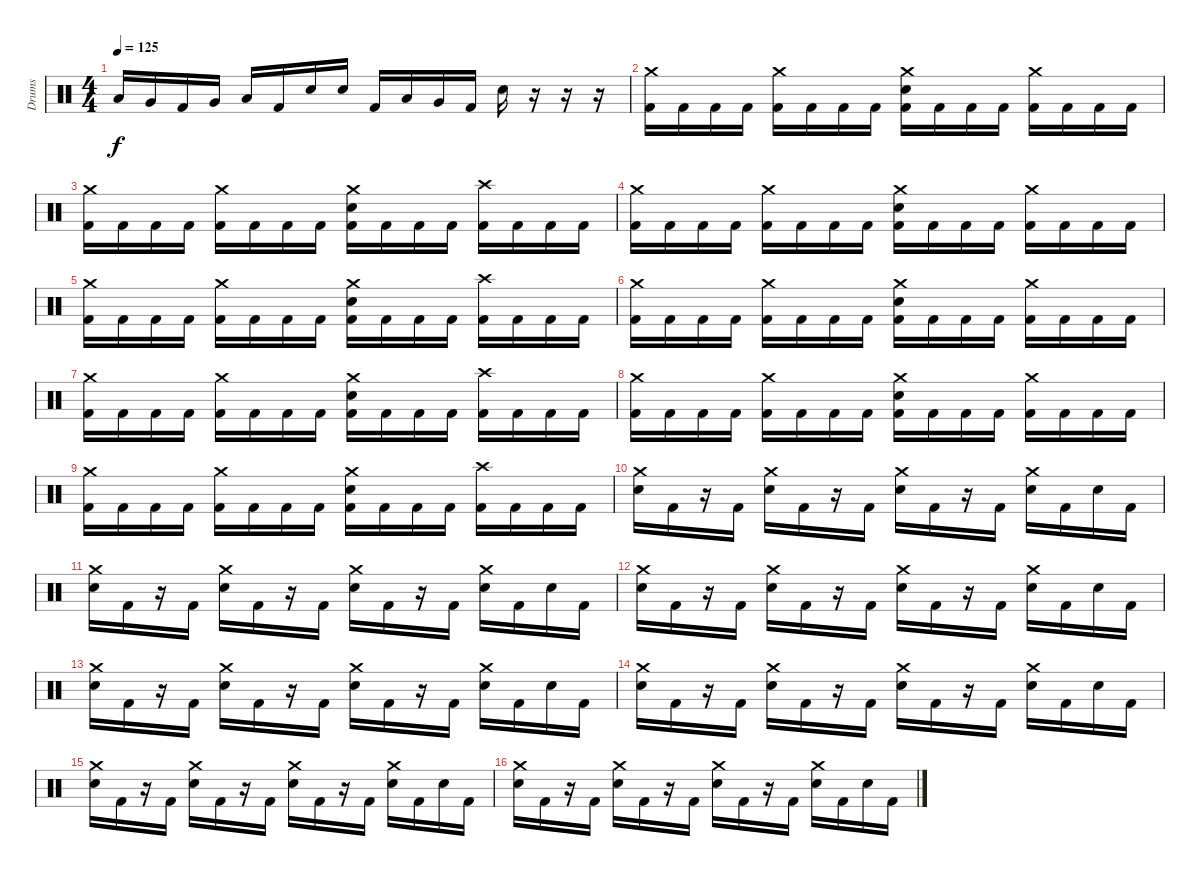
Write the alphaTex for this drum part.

\track ("Drums" "Drums") {instrument percussion}
\staff {score}
\articulation defaults
\ts (4 4)
\tempo 125
\clef neutral
\ks c "Low Tom (hit)".16{dy f} "Very Low Tom (hit)".16 "Kick (hit) 2".16 "Very Low Tom (hit)".16 "Low Floor Tom (hit)".16 "Kick (hit) 2".16 "Electric Snare (hit)".16 "Electric Snare (hit)".16 "Kick (hit) 2".16 "Low Tom (hit)".16 "Very Low Tom (hit)".16 "Kick (hit) 2".16 "Electric Snare (hit)".16
r.16 r.16 r.16 |
("Crash medium (hit)" "Kick (hit) 2").16 "Kick (hit) 2".16 "Kick (hit) 2".16 "Kick (hit) 2".16 ("Crash medium (hit)" "Kick (hit) 2").16 "Kick (hit) 2".16 "Kick (hit) 2".16 "Kick (hit) 2".16 ("Crash medium (hit)" "Electric Snare (hit)" "Kick (hit) 2").16 "Kick (hit) 2".16 "Kick (hit) 2".16 "Kick (hit) 2".16 ("Crash medium (hit)" "Kick (hit) 2").16 "Kick (hit) 2".16 "Kick (hit) 2".16 "Kick (hit) 2".16 |
("Crash medium (hit)" "Kick (hit) 2").16 "Kick (hit) 2".16 "Kick (hit) 2".16 "Kick (hit) 2".16 ("Crash medium (hit)" "Kick (hit) 2").16 "Kick (hit) 2".16 "Kick (hit) 2".16 "Kick (hit) 2".16 ("Crash medium (hit)" "Electric Snare (hit)" "Kick (hit) 2").16 "Kick (hit) 2".16 "Kick (hit) 2".16 "Kick (hit) 2".16 ("Crash high (hit)" "Kick (hit) 2").16 "Kick (hit) 2".16 "Kick (hit) 2".16 "Kick (hit) 2".16 |
("Crash medium (hit)" "Kick (hit) 2").16 "Kick (hit) 2".16 "Kick (hit) 2".16 "Kick (hit) 2".16 ("Crash medium (hit)" "Kick (hit) 2").16 "Kick (hit) 2".16 "Kick (hit) 2".16 "Kick (hit) 2".16 ("Crash medium (hit)" "Electric Snare (hit)" "Kick (hit) 2").16 "Kick (hit) 2".16 "Kick (hit) 2".16 "Kick (hit) 2".16 ("Crash medium (hit)" "Kick (hit) 2").16 "Kick (hit) 2".16 "Kick (hit) 2".16 "Kick (hit) 2".16 |
("Crash medium (hit)" "Kick (hit) 2").16 "Kick (hit) 2".16 "Kick (hit) 2".16 "Kick (hit) 2".16 ("Crash medium (hit)" "Kick (hit) 2").16 "Kick (hit) 2".16 "Kick (hit) 2".16 "Kick (hit) 2".16 ("Crash medium (hit)" "Electric Snare (hit)" "Kick (hit) 2").16 "Kick (hit) 2".16 "Kick (hit) 2".16 "Kick (hit) 2".16 ("Crash high (hit)" "Kick (hit) 2").16 "Kick (hit) 2".16 "Kick (hit) 2".16 "Kick (hit) 2".16 |
("Crash medium (hit)" "Kick (hit) 2").16 "Kick (hit) 2".16 "Kick (hit) 2".16 "Kick (hit) 2".16 ("Crash medium (hit)" "Kick (hit) 2").16 "Kick (hit) 2".16 "Kick (hit) 2".16 "Kick (hit) 2".16 ("Crash medium (hit)" "Electric Snare (hit)" "Kick (hit) 2").16 "Kick (hit) 2".16 "Kick (hit) 2".16 "Kick (hit) 2".16 ("Crash medium (hit)" "Kick (hit) 2").16 "Kick (hit) 2".16 "Kick (hit) 2".16 "Kick (hit) 2".16 |
("Crash medium (hit)" "Kick (hit) 2").16 "Kick (hit) 2".16 "Kick (hit) 2".16 "Kick (hit) 2".16 ("Crash medium (hit)" "Kick (hit) 2").16 "Kick (hit) 2".16 "Kick (hit) 2".16 "Kick (hit) 2".16 ("Crash medium (hit)" "Electric Snare (hit)" "Kick (hit) 2").16 "Kick (hit) 2".16 "Kick (hit) 2".16 "Kick (hit) 2".16 ("Crash high (hit)" "Kick (hit) 2").16 "Kick (hit) 2".16 "Kick (hit) 2".16 "Kick (hit) 2".16 |
("Crash medium (hit)" "Kick (hit) 2").16 "Kick (hit) 2".16 "Kick (hit) 2".16 "Kick (hit) 2".16 ("Crash medium (hit)" "Kick (hit) 2").16 "Kick (hit) 2".16 "Kick (hit) 2".16 "Kick (hit) 2".16 ("Crash medium (hit)" "Electric Snare (hit)" "Kick (hit) 2").16 "Kick (hit) 2".16 "Kick (hit) 2".16 "Kick (hit) 2".16 ("Crash medium (hit)" "Kick (hit) 2").16 "Kick (hit) 2".16 "Kick (hit) 2".16 "Kick (hit) 2".16 |
("Crash medium (hit)" "Kick (hit) 2").16 "Kick (hit) 2".16 "Kick (hit) 2".16 "Kick (hit) 2".16 ("Crash medium (hit)" "Kick (hit) 2").16 "Kick (hit) 2".16 "Kick (hit) 2".16 "Kick (hit) 2".16 ("Crash medium (hit)" "Electric Snare (hit)" "Kick (hit) 2").16 "Kick (hit) 2".16 "Kick (hit) 2".16 "Kick (hit) 2".16 ("Crash high (hit)" "Kick (hit) 2").16 "Kick (hit) 2".16 "Kick (hit) 2".16 "Kick (hit) 2".16 |
("Crash medium (hit)" "Electric Snare (hit)").16 "Kick (hit) 2".16 r.16 "Kick (hit) 2".16 ("Crash medium (hit)" "Electric Snare (hit)").16 "Kick (hit) 2".16 r.16 "Kick (hit) 2".16 ("Crash medium (hit)" "Electric Snare (hit)").16 "Kick (hit) 2".16 r.16 "Kick (hit) 2".16 ("Crash medium (hit)" "Electric Snare (hit)").16 "Kick (hit) 2".16 "Electric Snare (hit)".16 "Kick (hit) 2".16 |
("Crash medium (hit)" "Electric Snare (hit)").16 "Kick (hit) 2".16 r.16 "Kick (hit) 2".16 ("Crash medium (hit)" "Electric Snare (hit)").16 "Kick (hit) 2".16 r.16 "Kick (hit) 2".16 ("Crash medium (hit)" "Electric Snare (hit)").16 "Kick (hit) 2".16 r.16 "Kick (hit) 2".16 ("Crash medium (hit)" "Electric Snare (hit)").16 "Kick (hit) 2".16 "Electric Snare (hit)".16 "Kick (hit) 2".16 |
("Crash medium (hit)" "Electric Snare (hit)").16 "Kick (hit) 2".16 r.16 "Kick (hit) 2".16 ("Crash medium (hit)" "Electric Snare (hit)").16 "Kick (hit) 2".16 r.16 "Kick (hit) 2".16 ("Crash medium (hit)" "Electric Snare (hit)").16 "Kick (hit) 2".16 r.16 "Kick (hit) 2".16 ("Crash medium (hit)" "Electric Snare (hit)").16 "Kick (hit) 2".16 "Electric Snare (hit)".16 "Kick (hit) 2".16 |
("Crash medium (hit)" "Electric Snare (hit)").16 "Kick (hit) 2".16 r.16 "Kick (hit) 2".16 ("Crash medium (hit)" "Electric Snare (hit)").16 "Kick (hit) 2".16 r.16 "Kick (hit) 2".16 ("Crash medium (hit)" "Electric Snare (hit)").16 "Kick (hit) 2".16 r.16 "Kick (hit) 2".16 ("Crash medium (hit)" "Electric Snare (hit)").16 "Kick (hit) 2".16 "Electric Snare (hit)".16 "Kick (hit) 2".16 |
("Crash medium (hit)" "Electric Snare (hit)").16 "Kick (hit) 2".16 r.16 "Kick (hit) 2".16 ("Crash medium (hit)" "Electric Snare (hit)").16 "Kick (hit) 2".16 r.16 "Kick (hit) 2".16 ("Crash medium (hit)" "Electric Snare (hit)").16 "Kick (hit) 2".16 r.16 "Kick (hit) 2".16 ("Crash medium (hit)" "Electric Snare (hit)").16 "Kick (hit) 2".16 "Electric Snare (hit)".16 "Kick (hit) 2".16 |
("Crash medium (hit)" "Electric Snare (hit)").16 "Kick (hit) 2".16 r.16 "Kick (hit) 2".16 ("Crash medium (hit)" "Electric Snare (hit)").16 "Kick (hit) 2".16 r.16 "Kick (hit) 2".16 ("Crash medium (hit)" "Electric Snare (hit)").16 "Kick (hit) 2".16 r.16 "Kick (hit) 2".16 ("Crash medium (hit)" "Electric Snare (hit)").16 "Kick (hit) 2".16 "Electric Snare (hit)".16 "Kick (hit) 2".16 |
("Crash medium (hit)" "Electric Snare (hit)").16 "Kick (hit) 2".16 r.16 "Kick (hit) 2".16 ("Crash medium (hit)" "Electric Snare (hit)").16 "Kick (hit) 2".16 r.16 "Kick (hit) 2".16 ("Crash medium (hit)" "Electric Snare (hit)").16 "Kick (hit) 2".16 r.16 "Kick (hit) 2".16 ("Crash medium (hit)" "Electric Snare (hit)").16 "Kick (hit) 2".16 "Electric Snare (hit)".16 "Kick (hit) 2".16
